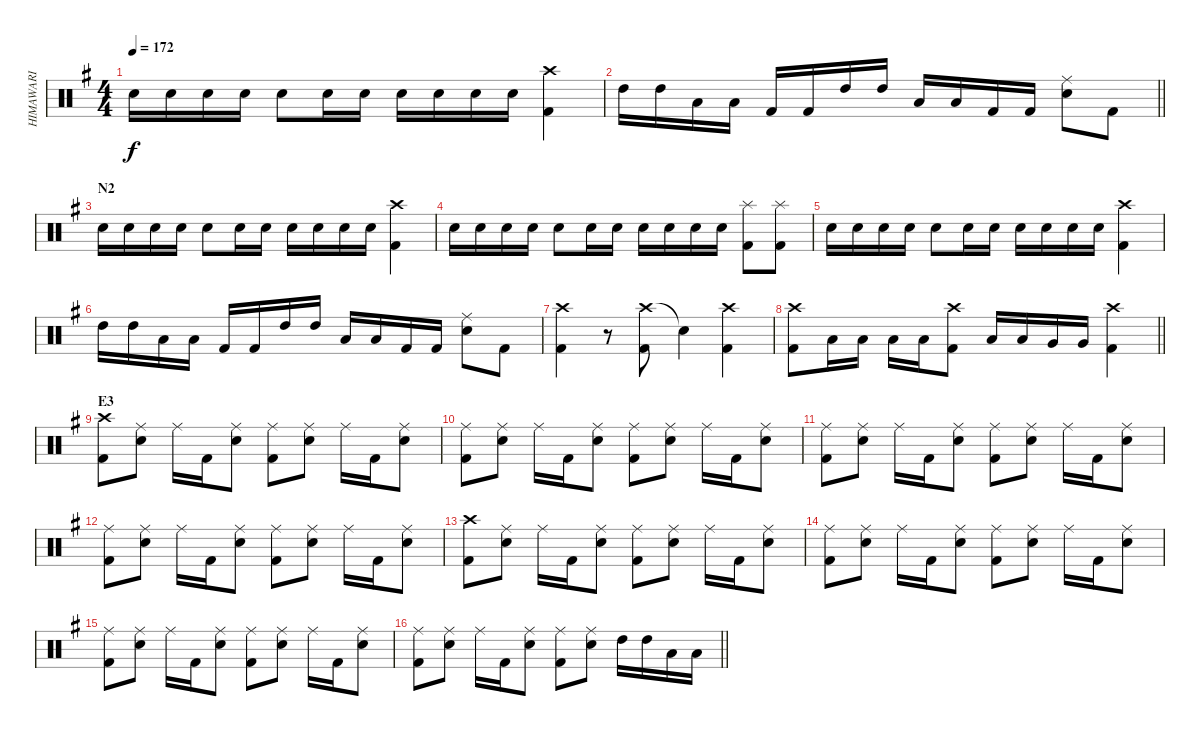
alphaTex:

\track ("HIMAWARI" "HIMAWARI") {instrument percussion}
\staff {score}
\articulation defaults
\ts (4 4)
\tempo 172
\clef neutral
\ks g "Snare (hit) 2".16{dy f} "Snare (hit) 2".16 "Snare (hit) 2".16 "Snare (hit) 2".16 "Snare (hit) 2".8 "Snare (hit) 2".16 "Snare (hit) 2".16 "Snare (hit) 2".16 "Snare (hit) 2".16 "Snare (hit) 2".16 "Snare (hit) 2".16
("Crash high (hit)" "Kick (hit) 2").4 |
\barLineRight lightlight "High Tom (hit)".16 "High Tom (hit)".16 "Low Tom (hit)".16 "Low Tom (hit)".16 "Kick (hit) 2".16 "Kick (hit) 2".16 "High Tom (hit)".16 "High Tom (hit)".16 "Low Tom (hit)".16 "Low Tom (hit)".16 "Kick (hit) 2".16 "Kick (hit) 2".16
("Ride (middle)" "Snare (hit) 2").8 "Kick (hit) 2".8 |
\section ("" "N2")
"Snare (hit) 2".16 "Snare (hit) 2".16 "Snare (hit) 2".16 "Snare (hit) 2".16 "Snare (hit) 2".8 "Snare (hit) 2".16 "Snare (hit) 2".16 "Snare (hit) 2".16 "Snare (hit) 2".16 "Snare (hit) 2".16 "Snare (hit) 2".16 ("Crash high (hit)" "Kick (hit) 2").4 |
"Snare (hit) 2".16 "Snare (hit) 2".16 "Snare (hit) 2".16 "Snare (hit) 2".16 "Snare (hit) 2".8 "Snare (hit) 2".16 "Snare (hit) 2".16 "Snare (hit) 2".16 "Snare (hit) 2".16 "Snare (hit) 2".16 "Snare (hit) 2".16 ("Splash (hit)" "Kick (hit) 2").8 ("Splash (hit)" "Kick (hit) 2").8 |
"Snare (hit) 2".16 "Snare (hit) 2".16 "Snare (hit) 2".16 "Snare (hit) 2".16 "Snare (hit) 2".8 "Snare (hit) 2".16 "Snare (hit) 2".16 "Snare (hit) 2".16 "Snare (hit) 2".16 "Snare (hit) 2".16 "Snare (hit) 2".16 ("Crash high (hit)" "Kick (hit) 2").4 |
"High Tom (hit)".16 "High Tom (hit)".16 "Low Tom (hit)".16 "Low Tom (hit)".16 "Kick (hit) 2".16 "Kick (hit) 2".16 "High Tom (hit)".16 "High Tom (hit)".16 "Low Tom (hit)".16 "Low Tom (hit)".16 "Kick (hit) 2".16 "Kick (hit) 2".16 ("Ride (middle)" "Snare (hit) 2").8 "Kick (hit) 2".8 |
("Crash high (hit)" "Kick (hit) 2").4 r.8 ("Crash high (hit)" "Kick (hit) 2").8 "Snare (hit)"{t}.4 ("Crash high (hit)" "Kick (hit) 2").4 |
\barLineRight lightlight
("Crash high (hit)" "Kick (hit) 2").8 "Low Tom (hit)".16 "Low Tom (hit)".16 "Low Tom (hit)".16 "Low Tom (hit)".16 ("Crash high (hit)" "Kick (hit) 2").8 "Low Tom (hit)".16 "Low Tom (hit)".16 "Very Low Tom (hit)".16 "Very Low Tom (hit)".16 ("Crash high (hit)" "Kick (hit) 2").4 |
\section ("" "E3")
("Crash high (hit)" "Kick (hit) 2").8 ("Ride (middle)" "Snare (hit) 2").8 "Ride (middle)".16 "Kick (hit) 2".16 ("Ride (middle)" "Snare (hit) 2").8 ("Ride (middle)" "Kick (hit) 2").8 ("Ride (middle)" "Snare (hit) 2").8 "Ride (middle)".16 "Kick (hit) 2".16 ("Ride (middle)" "Snare (hit) 2").8 |
("Ride (middle)" "Kick (hit) 2").8 ("Ride (middle)" "Snare (hit) 2").8 "Ride (middle)".16 "Kick (hit) 2".16 ("Ride (middle)" "Snare (hit) 2").8 ("Ride (middle)" "Kick (hit) 2").8 ("Ride (middle)" "Snare (hit) 2").8 "Ride (middle)".16 "Kick (hit) 2".16 ("Ride (middle)" "Snare (hit) 2").8 |
("Ride (middle)" "Kick (hit) 2").8 ("Ride (middle)" "Snare (hit) 2").8 "Ride (middle)".16 "Kick (hit) 2".16 ("Ride (middle)" "Snare (hit) 2").8 ("Ride (middle)" "Kick (hit) 2").8 ("Ride (middle)" "Snare (hit) 2").8 "Ride (middle)".16 "Kick (hit) 2".16 ("Ride (middle)" "Snare (hit) 2").8 |
("Ride (middle)" "Kick (hit) 2").8 ("Ride (middle)" "Snare (hit) 2").8 "Ride (middle)".16 "Kick (hit) 2".16 ("Ride (middle)" "Snare (hit) 2").8 ("Ride (middle)" "Kick (hit) 2").8 ("Ride (middle)" "Snare (hit) 2").8 "Ride (middle)".16 "Kick (hit) 2".16 ("Ride (middle)" "Snare (hit) 2").8 |
("Crash high (hit)" "Kick (hit) 2").8 ("Ride (middle)" "Snare (hit) 2").8 "Ride (middle)".16 "Kick (hit) 2".16 ("Ride (middle)" "Snare (hit) 2").8 ("Ride (middle)" "Kick (hit) 2").8 ("Ride (middle)" "Snare (hit) 2").8 "Ride (middle)".16 "Kick (hit) 2".16 ("Ride (middle)" "Snare (hit) 2").8 |
("Ride (middle)" "Kick (hit) 2").8 ("Ride (middle)" "Snare (hit) 2").8 "Ride (middle)".16 "Kick (hit) 2".16 ("Ride (middle)" "Snare (hit) 2").8 ("Ride (middle)" "Kick (hit) 2").8 ("Ride (middle)" "Snare (hit) 2").8 "Ride (middle)".16 "Kick (hit) 2".16 ("Ride (middle)" "Snare (hit) 2").8 |
("Ride (middle)" "Kick (hit) 2").8 ("Ride (middle)" "Snare (hit) 2").8 "Ride (middle)".16 "Kick (hit) 2".16 ("Ride (middle)" "Snare (hit) 2").8 ("Ride (middle)" "Kick (hit) 2").8 ("Ride (middle)" "Snare (hit) 2").8 "Ride (middle)".16 "Kick (hit) 2".16 ("Ride (middle)" "Snare (hit) 2").8 |
\barLineRight lightlight
("Ride (middle)" "Kick (hit) 2").8 ("Ride (middle)" "Snare (hit) 2").8 "Ride (middle)".16 "Kick (hit) 2".16 ("Ride (middle)" "Snare (hit) 2").8 ("Ride (middle)" "Kick (hit) 2").8 ("Ride (middle)" "Snare (hit) 2").8 "High Tom (hit)".16 "High Tom (hit)".16 "Low Tom (hit)".16 "Low Tom (hit)".16
